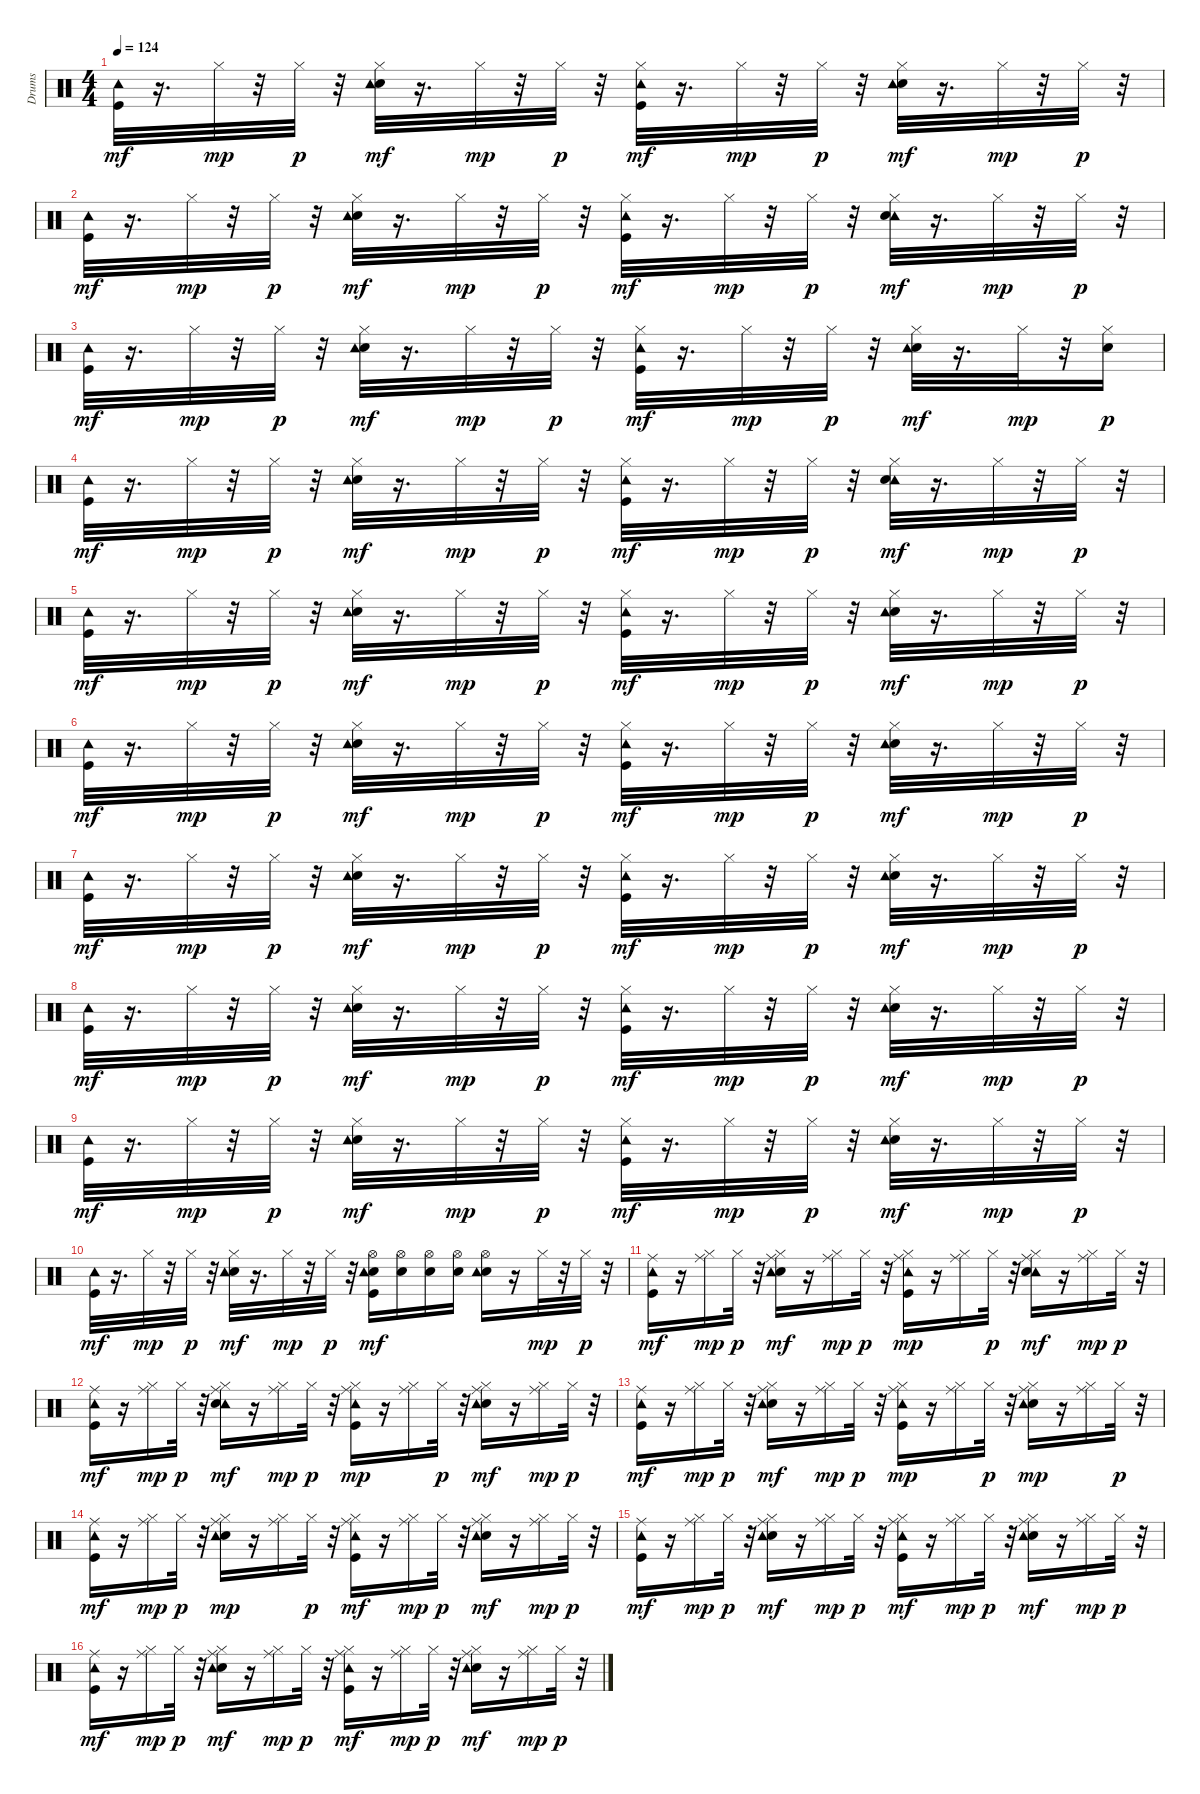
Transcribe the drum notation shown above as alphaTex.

\track ("Drums" "Drums") {instrument percussion}
\staff {score}
\articulation defaults
\ts (4 4)
\tempo 124
\clef neutral
\ks c
("Tambourine (hit)" "Kick (hit)").32{dy mf} r.16{d} "Hi-Hat (closed)".32{dy mp} r.32 "Hi-Hat (closed)".32{dy p} r.32 ("Snare (hit) 2" "Tambourine (hit)" "Hi-Hat (closed)").32{dy mf} r.16{d} "Hi-Hat (closed)".32{dy mp} r.32 "Hi-Hat (closed)".32{dy p} r.32 ("Kick (hit)" "Tambourine (hit)" "Hi-Hat (closed)").32{dy mf} r.16{d} "Hi-Hat (closed)".32{dy mp} r.32 "Hi-Hat (closed)".32{dy p} r.32 ("Snare (hit) 2" "Tambourine (hit)" "Hi-Hat (closed)").32{dy mf} r.16{d} "Hi-Hat (closed)".32{dy mp} r.32 "Hi-Hat (closed)".32{dy p} r.32 |
("Kick (hit)" "Tambourine (hit)").32{dy mf} r.16{d} "Hi-Hat (closed)".32{dy mp} r.32 "Hi-Hat (closed)".32{dy p} r.32 ("Snare (hit) 2" "Tambourine (hit)" "Hi-Hat (closed)").32{dy mf} r.16{d} "Hi-Hat (closed)".32{dy mp} r.32 "Hi-Hat (closed)".32{dy p} r.32 ("Kick (hit)" "Tambourine (hit)" "Hi-Hat (closed)").32{dy mf} r.16{d} "Hi-Hat (closed)".32{dy mp} r.32 "Hi-Hat (closed)".32{dy p} r.32 ("Tambourine (hit)" "Snare (hit) 2" "Hi-Hat (closed)").32{dy mf} r.16{d} "Hi-Hat (closed)".32{dy mp} r.32 "Hi-Hat (closed)".32{dy p} r.32 |
("Tambourine (hit)" "Kick (hit)").32{dy mf} r.16{d} "Hi-Hat (closed)".32{dy mp} r.32 "Hi-Hat (closed)".32{dy p} r.32 ("Snare (hit) 2" "Tambourine (hit)" "Hi-Hat (closed)").32{dy mf} r.16{d} "Hi-Hat (closed)".32{dy mp} r.32 "Hi-Hat (closed)".32{dy p} r.32 ("Kick (hit)" "Tambourine (hit)" "Hi-Hat (closed)").32{dy mf} r.16{d} "Hi-Hat (closed)".32{dy mp} r.32 "Hi-Hat (closed)".32{dy p} r.32 ("Snare (hit) 2" "Tambourine (hit)" "Hi-Hat (closed)").32{dy mf} r.16{d} "Hi-Hat (closed)".32{dy mp} r.32 ("Electric Snare (hit)" "Hi-Hat (closed)").16{dy p} |
("Kick (hit)" "Tambourine (hit)").32{dy mf} r.16{d} "Hi-Hat (closed)".32{dy mp} r.32 "Hi-Hat (closed)".32{dy p} r.32 ("Snare (hit) 2" "Tambourine (hit)" "Hi-Hat (closed)").32{dy mf} r.16{d} "Hi-Hat (closed)".32{dy mp} r.32 "Hi-Hat (closed)".32{dy p} r.32 ("Kick (hit)" "Tambourine (hit)" "Hi-Hat (closed)").32{dy mf} r.16{d} "Hi-Hat (closed)".32{dy mp} r.32 "Hi-Hat (closed)".32{dy p} r.32 ("Tambourine (hit)" "Snare (hit) 2" "Hi-Hat (closed)").32{dy mf} r.16{d} "Hi-Hat (closed)".32{dy mp} r.32 "Hi-Hat (closed)".32{dy p} r.32 |
("Tambourine (hit)" "Kick (hit)").32{dy mf} r.16{d} "Hi-Hat (closed)".32{dy mp} r.32 "Hi-Hat (closed)".32{dy p} r.32 ("Snare (hit) 2" "Tambourine (hit)" "Hi-Hat (closed)").32{dy mf} r.16{d} "Hi-Hat (closed)".32{dy mp} r.32 "Hi-Hat (closed)".32{dy p} r.32 ("Kick (hit)" "Tambourine (hit)" "Hi-Hat (closed)").32{dy mf} r.16{d} "Hi-Hat (closed)".32{dy mp} r.32 "Hi-Hat (closed)".32{dy p} r.32 ("Snare (hit) 2" "Tambourine (hit)" "Hi-Hat (closed)").32{dy mf} r.16{d} "Hi-Hat (closed)".32{dy mp} r.32 "Hi-Hat (closed)".32{dy p} r.32 |
("Tambourine (hit)" "Kick (hit)").32{dy mf} r.16{d} "Hi-Hat (closed)".32{dy mp} r.32 "Hi-Hat (closed)".32{dy p} r.32 ("Snare (hit) 2" "Tambourine (hit)" "Hi-Hat (closed)").32{dy mf} r.16{d} "Hi-Hat (closed)".32{dy mp} r.32 "Hi-Hat (closed)".32{dy p} r.32 ("Kick (hit)" "Tambourine (hit)" "Hi-Hat (closed)").32{dy mf} r.16{d} "Hi-Hat (closed)".32{dy mp} r.32 "Hi-Hat (closed)".32{dy p} r.32 ("Hi-Hat (closed)" "Snare (hit) 2" "Tambourine (hit)").32{dy mf} r.16{d} "Hi-Hat (closed)".32{dy mp} r.32 "Hi-Hat (closed)".32{dy p} r.32 |
("Tambourine (hit)" "Kick (hit)").32{dy mf} r.16{d} "Hi-Hat (closed)".32{dy mp} r.32 "Hi-Hat (closed)".32{dy p} r.32 ("Snare (hit) 2" "Tambourine (hit)" "Hi-Hat (closed)").32{dy mf} r.16{d} "Hi-Hat (closed)".32{dy mp} r.32 "Hi-Hat (closed)".32{dy p} r.32 ("Tambourine (hit)" "Kick (hit)" "Hi-Hat (closed)").32{dy mf} r.16{d} "Hi-Hat (closed)".32{dy mp} r.32 "Hi-Hat (closed)".32{dy p} r.32 ("Snare (hit) 2" "Tambourine (hit)" "Hi-Hat (closed)").32{dy mf} r.16{d} "Hi-Hat (closed)".32{dy mp} r.32 "Hi-Hat (closed)".32{dy p} r.32 |
("Tambourine (hit)" "Kick (hit)").32{dy mf} r.16{d} "Hi-Hat (closed)".32{dy mp} r.32 "Hi-Hat (closed)".32{dy p} r.32 ("Snare (hit) 2" "Tambourine (hit)" "Hi-Hat (closed)").32{dy mf} r.16{d} "Hi-Hat (closed)".32{dy mp} r.32 "Hi-Hat (closed)".32{dy p} r.32 ("Kick (hit)" "Tambourine (hit)" "Hi-Hat (closed)").32{dy mf} r.16{d} "Hi-Hat (closed)".32{dy mp} r.32 "Hi-Hat (closed)".32{dy p} r.32 ("Hi-Hat (closed)" "Snare (hit) 2" "Tambourine (hit)").32{dy mf} r.16{d} "Hi-Hat (closed)".32{dy mp} r.32 "Hi-Hat (closed)".32{dy p} r.32 |
("Tambourine (hit)" "Kick (hit)").32{dy mf} r.16{d} "Hi-Hat (closed)".32{dy mp} r.32 "Hi-Hat (closed)".32{dy p} r.32 ("Snare (hit) 2" "Tambourine (hit)" "Hi-Hat (closed)").32{dy mf} r.16{d} "Hi-Hat (closed)".32{dy mp} r.32 "Hi-Hat (closed)".32{dy p} r.32 ("Hi-Hat (closed)" "Kick (hit)" "Tambourine (hit)").32{dy mf} r.16{d} "Hi-Hat (closed)".32{dy mp} r.32 "Hi-Hat (closed)".32{dy p} r.32 ("Snare (hit) 2" "Tambourine (hit)" "Hi-Hat (closed)").32{dy mf} r.16{d} "Hi-Hat (closed)".32{dy mp} r.32 "Hi-Hat (closed)".32{dy p} r.32 |
("Tambourine (hit)" "Kick (hit)").32{dy mf} r.16{d} "Hi-Hat (closed)".32{dy mp} r.32 "Hi-Hat (closed)".32{dy p} r.32 ("Hi-Hat (closed)" "Snare (hit) 2" "Tambourine (hit)").32{dy mf} r.16{d} "Hi-Hat (closed)".32{dy mp} r.32 "Hi-Hat (closed)".32{dy p} r.32 ("Electric Snare (hit)" "Hi-Hat (open)" "Kick (hit)" "Tambourine (hit)").16{dy mf} ("Electric Snare (hit)" "Hi-Hat (open)").16 ("Electric Snare (hit)" "Hi-Hat (open)").16 ("Electric Snare (hit)" "Hi-Hat (open)").16 ("Hi-Hat (open)" "Electric Snare (hit)" "Tambourine (hit)").16 r.16 "Hi-Hat (closed)".32{dy mp} r.32 "Hi-Hat (closed)".32{dy p} r.32 |
("Ride (middle)" "Tambourine (hit)" "Kick (hit)").16{dy mf} r.16 ("Ride (middle)" "Hi-Hat (closed)").16{dy mp} "Hi-Hat (closed)".32{dy p} r.32 ("Hi-Hat (closed)" "Ride (middle)" "Snare (hit) 2" "Tambourine (hit)").16{dy mf} r.16 ("Ride (middle)" "Hi-Hat (closed)").16{dy mp} "Hi-Hat (closed)".32{dy p} r.32 ("Hi-Hat (closed)" "Kick (hit)" "Tambourine (hit)" "Ride (middle)").16{dy mp} r.16 ("Ride (middle)" "Hi-Hat (closed)").16 "Hi-Hat (closed)".32{dy p} r.32 ("Tambourine (hit)" "Ride (middle)" "Snare (hit) 2" "Hi-Hat (closed)").16{dy mf} r.16 ("Ride (middle)" "Hi-Hat (closed)").16{dy mp} "Hi-Hat (closed)".32{dy p} r.32 |
("Ride (middle)" "Tambourine (hit)" "Kick (hit)").16{dy mf} r.16 ("Ride (middle)" "Hi-Hat (closed)").16{dy mp} "Hi-Hat (closed)".32{dy p} r.32 ("Tambourine (hit)" "Ride (middle)" "Snare (hit) 2" "Hi-Hat (closed)").16{dy mf} r.16 ("Ride (middle)" "Hi-Hat (closed)").16{dy mp} "Hi-Hat (closed)".32{dy p} r.32 ("Hi-Hat (closed)" "Kick (hit)" "Tambourine (hit)" "Ride (middle)").16{dy mp} r.16 ("Ride (middle)" "Hi-Hat (closed)").16 "Hi-Hat (closed)".32{dy p} r.32 ("Snare (hit) 2" "Ride (middle)" "Tambourine (hit)" "Hi-Hat (closed)").16{dy mf} r.16 ("Ride (middle)" "Hi-Hat (closed)").16{dy mp} "Hi-Hat (closed)".32{dy p} r.32 |
("Ride (middle)" "Tambourine (hit)" "Kick (hit)").16{dy mf} r.16 ("Ride (middle)" "Hi-Hat (closed)").16{dy mp} "Hi-Hat (closed)".32{dy p} r.32 ("Snare (hit) 2" "Ride (middle)" "Tambourine (hit)" "Hi-Hat (closed)").16{dy mf} r.16 ("Ride (middle)" "Hi-Hat (closed)").16{dy mp} "Hi-Hat (closed)".32{dy p} r.32 ("Hi-Hat (closed)" "Kick (hit)" "Tambourine (hit)" "Ride (middle)").16{dy mp} r.16 ("Ride (middle)" "Hi-Hat (closed)").16 "Hi-Hat (closed)".32{dy p} r.32 ("Hi-Hat (closed)" "Snare (hit) 2" "Tambourine (hit)" "Ride (middle)").16{dy mp} r.16 ("Ride (middle)" "Hi-Hat (closed)").16 "Hi-Hat (closed)".32{dy p} r.32 |
("Ride (middle)" "Tambourine (hit)" "Kick (hit)").16{dy mf} r.16 ("Ride (middle)" "Hi-Hat (closed)").16{dy mp} "Hi-Hat (closed)".32{dy p} r.32 ("Hi-Hat (closed)" "Snare (hit) 2" "Tambourine (hit)" "Ride (middle)").16{dy mp} r.16 ("Ride (middle)" "Hi-Hat (closed)").16 "Hi-Hat (closed)".32{dy p} r.32 ("Ride (middle)" "Kick (hit)" "Tambourine (hit)" "Hi-Hat (closed)").16{dy mf} r.16 ("Hi-Hat (closed)" "Ride (middle)").16{dy mp} "Hi-Hat (closed)".32{dy p} r.32 ("Ride (middle)" "Snare (hit) 2" "Tambourine (hit)" "Hi-Hat (closed)").16{dy mf} r.16 ("Ride (middle)" "Hi-Hat (closed)").16{dy mp} "Hi-Hat (closed)".32{dy p} r.32 |
("Ride (middle)" "Tambourine (hit)" "Kick (hit)").16{dy mf} r.16 ("Hi-Hat (closed)" "Ride (middle)").16{dy mp} "Hi-Hat (closed)".32{dy p} r.32 ("Ride (middle)" "Snare (hit) 2" "Tambourine (hit)" "Hi-Hat (closed)").16{dy mf} r.16 ("Ride (middle)" "Hi-Hat (closed)").16{dy mp} "Hi-Hat (closed)".32{dy p} r.32 ("Ride (middle)" "Kick (hit)" "Tambourine (hit)" "Hi-Hat (closed)").16{dy mf} r.16 ("Hi-Hat (closed)" "Ride (middle)").16{dy mp} "Hi-Hat (closed)".32{dy p} r.32 ("Ride (middle)" "Snare (hit) 2" "Tambourine (hit)" "Hi-Hat (closed)").16{dy mf} r.16 ("Ride (middle)" "Hi-Hat (closed)").16{dy mp} "Hi-Hat (closed)".32{dy p} r.32 |
("Ride (middle)" "Tambourine (hit)" "Kick (hit)").16{dy mf} r.16 ("Hi-Hat (closed)" "Ride (middle)").16{dy mp} "Hi-Hat (closed)".32{dy p} r.32 ("Ride (middle)" "Snare (hit) 2" "Tambourine (hit)" "Hi-Hat (closed)").16{dy mf} r.16 ("Ride (middle)" "Hi-Hat (closed)").16{dy mp} "Hi-Hat (closed)".32{dy p} r.32 ("Ride (middle)" "Hi-Hat (closed)" "Kick (hit)" "Tambourine (hit)").16{dy mf} r.16 ("Ride (middle)" "Hi-Hat (closed)").16{dy mp} "Hi-Hat (closed)".32{dy p} r.32 ("Ride (middle)" "Snare (hit) 2" "Tambourine (hit)" "Hi-Hat (closed)").16{dy mf} r.16 ("Ride (middle)" "Hi-Hat (closed)").16{dy mp} "Hi-Hat (closed)".32{dy p} r.32
